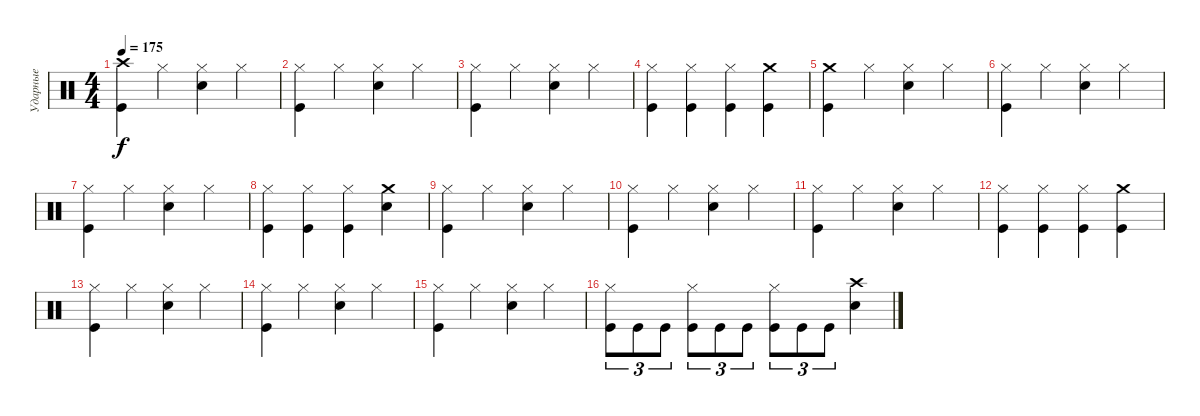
\track ("Ударные" "Ударные") {instrument percussion}
\staff {score}
\articulation defaults
\ts (4 4)
\tempo 175
\clef neutral
\ks c
("Crash high (hit)" "Kick (hit)").4{dy f} "Hi-Hat (closed)".4 ("Hi-Hat (closed)" "Electric Snare (hit)").4 "Hi-Hat (closed)".4 |
("Hi-Hat (closed)" "Kick (hit)").4 "Hi-Hat (closed)".4 ("Hi-Hat (closed)" "Electric Snare (hit)").4 "Hi-Hat (closed)".4 |
("Hi-Hat (closed)" "Kick (hit)").4 "Hi-Hat (closed)".4 ("Hi-Hat (closed)" "Electric Snare (hit)").4 "Hi-Hat (closed)".4 |
("Hi-Hat (closed)" "Kick (hit)").4 ("Hi-Hat (closed)" "Kick (hit)").4 ("Hi-Hat (closed)" "Kick (hit)").4 ("Crash medium (hit)" "Kick (hit)").4 |
("Crash medium (hit)" "Kick (hit)").4 "Hi-Hat (closed)".4 ("Hi-Hat (closed)" "Electric Snare (hit)").4 "Hi-Hat (closed)".4 |
("Hi-Hat (closed)" "Kick (hit)").4 "Hi-Hat (closed)".4 ("Hi-Hat (closed)" "Electric Snare (hit)").4 "Hi-Hat (closed)".4 |
("Hi-Hat (closed)" "Kick (hit)").4 "Hi-Hat (closed)".4 ("Hi-Hat (closed)" "Electric Snare (hit)").4 "Hi-Hat (closed)".4 |
("Hi-Hat (closed)" "Kick (hit)").4 ("Hi-Hat (closed)" "Kick (hit)").4 ("Hi-Hat (closed)" "Kick (hit)").4 ("Crash medium (hit)" "Electric Snare (hit)").4 |
("Hi-Hat (closed)" "Kick (hit)").4 "Hi-Hat (closed)".4 ("Hi-Hat (closed)" "Electric Snare (hit)").4 "Hi-Hat (closed)".4 |
("Hi-Hat (closed)" "Kick (hit)").4 "Hi-Hat (closed)".4 ("Hi-Hat (closed)" "Electric Snare (hit)").4 "Hi-Hat (closed)".4 |
("Hi-Hat (closed)" "Kick (hit)").4 "Hi-Hat (closed)".4 ("Hi-Hat (closed)" "Electric Snare (hit)").4 "Hi-Hat (closed)".4 |
("Hi-Hat (closed)" "Kick (hit)").4 ("Hi-Hat (closed)" "Kick (hit)").4 ("Hi-Hat (closed)" "Kick (hit)").4 ("Crash medium (hit)" "Kick (hit)").4 |
("Hi-Hat (closed)" "Kick (hit)").4 "Hi-Hat (closed)".4 ("Hi-Hat (closed)" "Electric Snare (hit)").4 "Hi-Hat (closed)".4 |
("Hi-Hat (closed)" "Kick (hit)").4 "Hi-Hat (closed)".4 ("Hi-Hat (closed)" "Electric Snare (hit)").4 "Hi-Hat (closed)".4 |
("Hi-Hat (closed)" "Kick (hit)").4 "Hi-Hat (closed)".4 ("Hi-Hat (closed)" "Electric Snare (hit)").4 "Hi-Hat (closed)".4 |
("Hi-Hat (closed)" "Kick (hit)").8{tu (3 2)} "Kick (hit)".8{tu (3 2)} "Kick (hit)".8{tu (3 2)} ("Hi-Hat (closed)" "Kick (hit)").8{tu (3 2)} "Kick (hit)".8{tu (3 2)} "Kick (hit)".8{tu (3 2)} ("Hi-Hat (closed)" "Kick (hit)").8{tu (3 2)} "Kick (hit)".8{tu (3 2)} "Kick (hit)".8{tu (3 2)} ("Crash high (hit)" "Electric Snare (hit)").4
